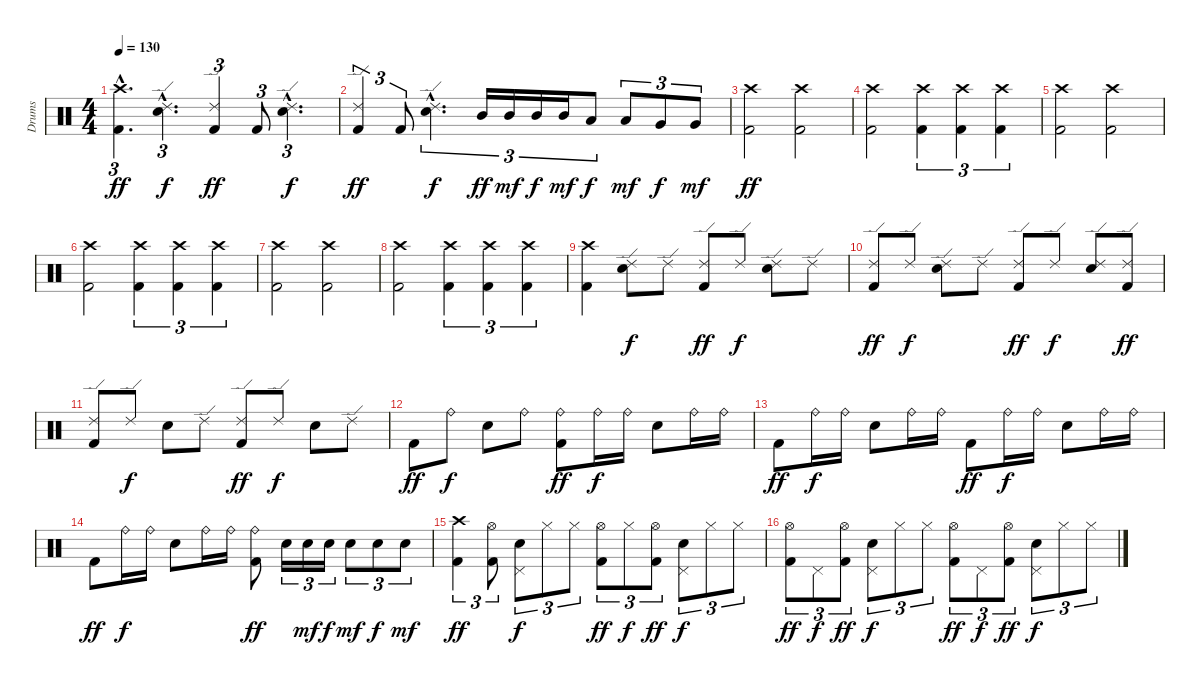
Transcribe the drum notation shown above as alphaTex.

\track ("Drums" "Drums") {instrument percussion}
\staff {score}
\articulation defaults
\ts (4 4)
\tempo 130
\clef neutral
\ks c
("Crash high (hit)"{hac} "Kick (hit) 2"{hac}).4{d tu (3 2) dy ff} ("Ride (edge) 2"{hac} "Snare (hit) 2"{hac}).4{d tu (3 2) dy f} ("Ride (edge) 2" "Kick (hit) 2").4{tu (3 2) dy ff} "Kick (hit) 2".8{tu (3 2)} ("Ride (edge) 2"{hac} "Snare (hit) 2"{hac}).4{d tu (3 2) dy f} |
("Ride (edge) 2" "Kick (hit) 2").4{tu (3 2) dy ff} "Kick (hit) 2".8{tu (3 2)} ("Ride (edge) 2"{hac} "Snare (hit) 2"{hac}).4{d tu (3 2) dy f} "Mid Tom (hit)".16{tu (3 2) dy ff} "Mid Tom (hit)".16{tu (3 2) dy mf} "Mid Tom (hit)".16{tu (3 2) dy f} "Mid Tom (hit)".16{tu (3 2) dy mf} "Low Tom (hit)".8{tu (3 2) dy f} "Low Tom (hit)".8{tu (3 2) dy mf} "Very Low Tom (hit)".8{tu (3 2) dy f} "Very Low Tom (hit)".8{tu (3 2) dy mf} |
("Crash high (hit)" "Kick (hit) 2").2{dy ff} ("Crash high (hit)" "Kick (hit) 2").2 |
("Crash high (hit)" "Kick (hit) 2").2 ("Crash high (hit)" "Kick (hit) 2").4{tu (3 2)} ("Crash high (hit)" "Kick (hit) 2").4{tu (3 2)} ("Crash high (hit)" "Kick (hit) 2").4{tu (3 2)} |
("Crash high (hit)" "Kick (hit) 2").2 ("Crash high (hit)" "Kick (hit) 2").2 |
("Crash high (hit)" "Kick (hit) 2").2 ("Crash high (hit)" "Kick (hit) 2").4{tu (3 2)} ("Crash high (hit)" "Kick (hit) 2").4{tu (3 2)} ("Crash high (hit)" "Kick (hit) 2").4{tu (3 2)} |
("Crash high (hit)" "Kick (hit) 2").2 ("Crash high (hit)" "Kick (hit) 2").2 |
("Crash high (hit)" "Kick (hit) 2").2 ("Crash high (hit)" "Kick (hit) 2").4{tu (3 2)} ("Crash high (hit)" "Kick (hit) 2").4{tu (3 2)} ("Crash high (hit)" "Kick (hit) 2").4{tu (3 2)} |
("Crash high (hit)" "Kick (hit) 2").4 ("Ride (edge) 2" "Snare (hit) 2").8{dy f} "Ride (edge) 2".8 ("Ride (edge) 2" "Kick (hit) 2").8{dy ff} "Ride (edge) 2".8{dy f} ("Ride (edge) 2" "Snare (hit) 2").8 "Ride (edge) 2".8 |
("Ride (edge) 2" "Kick (hit) 2").8{dy ff} "Ride (edge) 2".8{dy f} ("Ride (edge) 2" "Snare (hit) 2").8 "Ride (edge) 2".8 ("Ride (edge) 2" "Kick (hit) 2").8{dy ff} "Ride (edge) 2".8{dy f} ("Ride (edge) 2" "Snare (hit) 2").8 ("Ride (edge) 2" "Kick (hit) 2").8{dy ff} |
("Ride (edge) 2" "Kick (hit) 2").8 "Ride (edge) 2".8{dy f} "Snare (hit) 2".8 "Ride (edge) 2".8 ("Ride (edge) 2" "Kick (hit) 2").8{dy ff} "Ride (edge) 2".8{dy f} "Snare (hit) 2".8 "Ride (edge) 2".8 |
"Kick (hit) 2".8{dy ff} "Ride (bell)".8{dy f} "Snare (hit) 2".8 "Ride (bell)".8 ("Ride (bell)" "Kick (hit) 2").8{dy ff} "Ride (bell)".16{dy f} "Ride (bell)".16 "Snare (hit) 2".8 "Ride (bell)".16 "Ride (bell)".16 |
"Kick (hit) 2".8{dy ff} "Ride (bell)".16{dy f} "Ride (bell)".16 "Snare (hit) 2".8 "Ride (bell)".16 "Ride (bell)".16 "Kick (hit) 2".8{dy ff} "Ride (bell)".16{dy f} "Ride (bell)".16 "Snare (hit) 2".8 "Ride (bell)".16 "Ride (bell)".16 |
"Kick (hit) 2".8{dy ff} "Ride (bell)".16{dy f} "Ride (bell)".16 "Snare (hit) 2".8 "Ride (bell)".16 "Ride (bell)".16 ("Ride (bell)" "Kick (hit) 2").8{dy ff} "Snare (hit) 2".16{tu (3 2)} "Snare (hit) 2".16{tu (3 2) dy mf} "Snare (hit) 2".16{tu (3 2) dy f} "Snare (hit) 2".8{tu (3 2) dy mf} "Snare (hit) 2".8{tu (3 2) dy f} "Snare (hit) 2".8{tu (3 2) dy mf} |
("Crash high (hit)" "Kick (hit) 2").4{tu (3 2) dy ff} ("Hi-Hat (open)" "Kick (hit) 2").8{tu (3 2)} ("Pedal Hi-Hat (hit)" "Snare (hit) 2").8{tu (3 2) dy f} "Hi-Hat (closed)".8{tu (3 2)} "Hi-Hat (closed)".8{tu (3 2)} ("Hi-Hat (open)" "Kick (hit) 2").8{tu (3 2) dy ff} "Hi-Hat (closed)".8{tu (3 2) dy f} ("Hi-Hat (open)" "Kick (hit) 2").8{tu (3 2) dy ff} ("Pedal Hi-Hat (hit)" "Snare (hit) 2").8{tu (3 2) dy f} "Hi-Hat (closed)".8{tu (3 2)} "Hi-Hat (closed)".8{tu (3 2)} |
("Hi-Hat (open)" "Kick (hit) 2").8{tu (3 2) dy ff} "Pedal Hi-Hat (hit)".8{tu (3 2) dy f} ("Hi-Hat (open)" "Kick (hit) 2").8{tu (3 2) dy ff} ("Pedal Hi-Hat (hit)" "Snare (hit) 2").8{tu (3 2) dy f} "Hi-Hat (closed)".8{tu (3 2)} "Hi-Hat (closed)".8{tu (3 2)} ("Hi-Hat (open)" "Kick (hit) 2").8{tu (3 2) dy ff} "Pedal Hi-Hat (hit)".8{tu (3 2) dy f} ("Hi-Hat (open)" "Kick (hit) 2").8{tu (3 2) dy ff} ("Pedal Hi-Hat (hit)" "Snare (hit) 2").8{tu (3 2) dy f} "Hi-Hat (closed)".8{tu (3 2)} "Hi-Hat (closed)".8{tu (3 2)}
